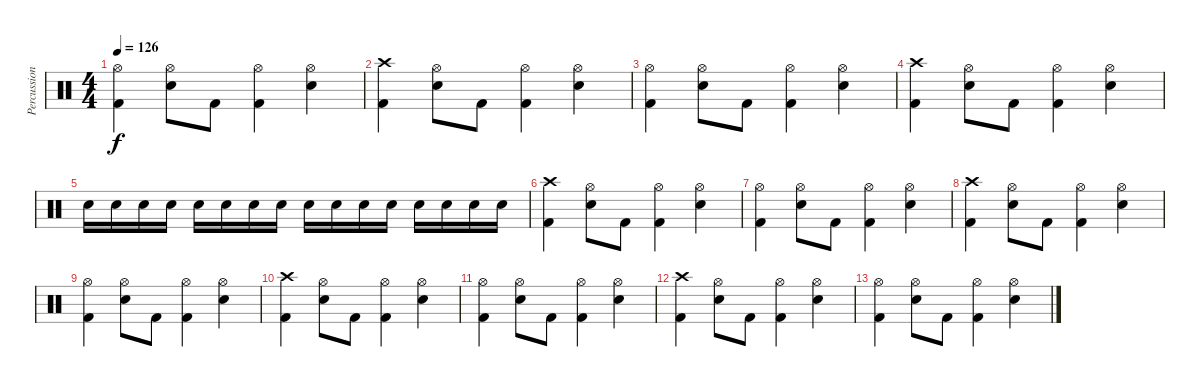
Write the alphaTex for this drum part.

\track ("Percussion" "Percussion") {instrument percussion}
\staff {score}
\articulation defaults
\ts (4 4)
\tempo 126
\clef neutral
\ks c
("Hi-Hat (open)" "Kick (hit) 2").4{dy f} ("Hi-Hat (open)" "Snare (hit) 2").8 "Kick (hit) 2".8 ("Hi-Hat (open)" "Kick (hit) 2").4 ("Hi-Hat (open)" "Snare (hit) 2").4 |
("Crash high (hit)" "Kick (hit) 2").4 ("Hi-Hat (open)" "Snare (hit) 2").8 "Kick (hit) 2".8 ("Hi-Hat (open)" "Kick (hit) 2").4 ("Hi-Hat (open)" "Snare (hit) 2").4 |
("Hi-Hat (open)" "Kick (hit) 2").4 ("Hi-Hat (open)" "Snare (hit) 2").8 "Kick (hit) 2".8 ("Hi-Hat (open)" "Kick (hit) 2").4 ("Hi-Hat (open)" "Snare (hit) 2").4 |
("Crash high (hit)" "Kick (hit) 2").4 ("Hi-Hat (open)" "Snare (hit) 2").8 "Kick (hit) 2".8 ("Hi-Hat (open)" "Kick (hit) 2").4 ("Hi-Hat (open)" "Snare (hit) 2").4 |
"Snare (hit) 2".16 "Snare (hit) 2".16 "Snare (hit) 2".16 "Snare (hit) 2".16 "Snare (hit) 2".16 "Snare (hit) 2".16 "Snare (hit) 2".16 "Snare (hit) 2".16 "Snare (hit) 2".16 "Snare (hit) 2".16 "Snare (hit) 2".16 "Snare (hit) 2".16 "Snare (hit) 2".16 "Snare (hit) 2".16 "Snare (hit) 2".16 "Snare (hit) 2".16 |
("Crash high (hit)" "Kick (hit) 2").4 ("Hi-Hat (open)" "Snare (hit) 2").8 "Kick (hit) 2".8 ("Hi-Hat (open)" "Kick (hit) 2").4 ("Hi-Hat (open)" "Snare (hit) 2").4 |
("Hi-Hat (open)" "Kick (hit) 2").4 ("Hi-Hat (open)" "Snare (hit) 2").8 "Kick (hit) 2".8 ("Hi-Hat (open)" "Kick (hit) 2").4 ("Hi-Hat (open)" "Snare (hit) 2").4 |
("Crash high (hit)" "Kick (hit) 2").4 ("Hi-Hat (open)" "Snare (hit) 2").8 "Kick (hit) 2".8 ("Hi-Hat (open)" "Kick (hit) 2").4 ("Hi-Hat (open)" "Snare (hit) 2").4 |
("Hi-Hat (open)" "Kick (hit) 2").4 ("Hi-Hat (open)" "Snare (hit) 2").8 "Kick (hit) 2".8 ("Hi-Hat (open)" "Kick (hit) 2").4 ("Hi-Hat (open)" "Snare (hit) 2").4 |
("Crash high (hit)" "Kick (hit) 2").4 ("Hi-Hat (open)" "Snare (hit) 2").8 "Kick (hit) 2".8 ("Hi-Hat (open)" "Kick (hit) 2").4 ("Hi-Hat (open)" "Snare (hit) 2").4 |
("Hi-Hat (open)" "Kick (hit) 2").4 ("Hi-Hat (open)" "Snare (hit) 2").8 "Kick (hit) 2".8 ("Hi-Hat (open)" "Kick (hit) 2").4 ("Hi-Hat (open)" "Snare (hit) 2").4 |
("Crash high (hit)" "Kick (hit) 2").4 ("Hi-Hat (open)" "Snare (hit) 2").8 "Kick (hit) 2".8 ("Hi-Hat (open)" "Kick (hit) 2").4 ("Hi-Hat (open)" "Snare (hit) 2").4 |
("Hi-Hat (open)" "Kick (hit) 2").4 ("Hi-Hat (open)" "Snare (hit) 2").8 "Kick (hit) 2".8 ("Hi-Hat (open)" "Kick (hit) 2").4 ("Hi-Hat (open)" "Snare (hit) 2").4
